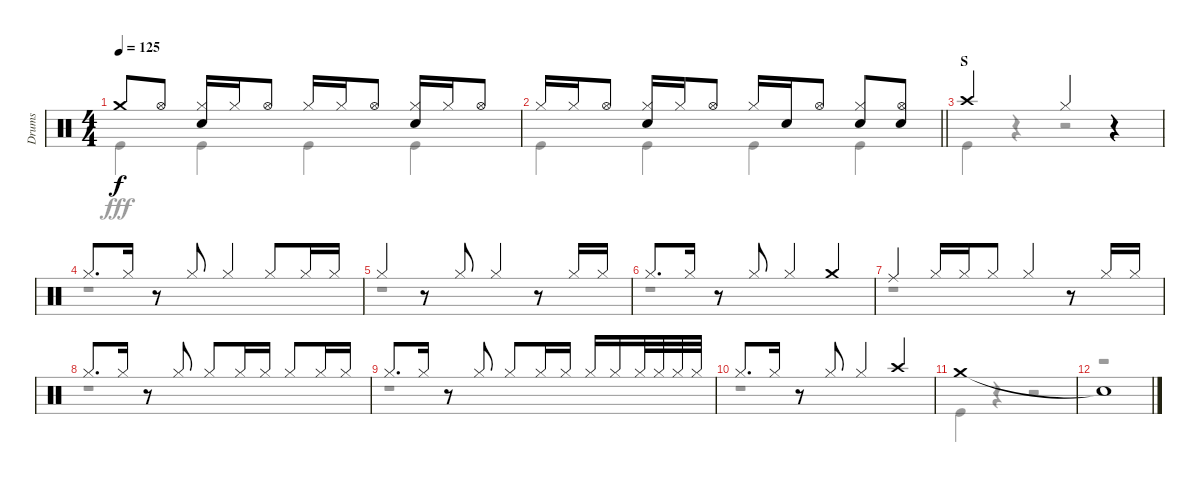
\track ("Drums" "Drums") {instrument percussion}
\staff {score}
\articulation defaults
\voice
\ts (4 4)
\tempo 125
\clef neutral
\ks c "Crash medium (hit)".8{dy f} "Hi-Hat (open)".8
("Hi-Hat (closed)" "Snare (hit) 2").16 "Hi-Hat (closed)".16 "Hi-Hat (open)".8 "Hi-Hat (closed)".16 "Hi-Hat (closed)".16 "Hi-Hat (open)".8 ("Hi-Hat (closed)" "Snare (hit) 2").16 "Hi-Hat (closed)".16 "Hi-Hat (open)".8 |
\barLineRight lightlight "Hi-Hat (closed)".16 "Hi-Hat (closed)".16 "Hi-Hat (open)".8
("Hi-Hat (closed)" "Snare (hit) 2").16 "Hi-Hat (closed)".16 "Hi-Hat (open)".8 "Hi-Hat (closed)".16 "Snare (hit) 2".16 "Hi-Hat (open)".8 ("Hi-Hat (closed)" "Snare (hit) 2").8 ("Hi-Hat (open)" "Snare (hit) 2").8 |
\section ("" "S")
"Crash high (hit)".2 "Hi-Hat (closed)".4 r.4 |
"Hi-Hat (closed)".8{d} "Hi-Hat (closed)".16 r.8 "Hi-Hat (closed)".8 "Hi-Hat (closed)".4 "Hi-Hat (closed)".8 "Hi-Hat (closed)".16 "Hi-Hat (closed)".16 |
"Hi-Hat (closed)".4 r.8 "Hi-Hat (closed)".8 "Hi-Hat (closed)".4 r.8 "Hi-Hat (closed)".16 "Hi-Hat (closed)".16 |
"Hi-Hat (closed)".8{d} "Hi-Hat (closed)".16 r.8 "Hi-Hat (closed)".8 "Hi-Hat (closed)".4 "Crash medium (hit)".4 |
"Ride (middle)".4 "Hi-Hat (closed)".16 "Hi-Hat (closed)".16 "Hi-Hat (closed)".8 "Hi-Hat (closed)".4 r.8 "Hi-Hat (closed)".16 "Hi-Hat (closed)".16 |
"Hi-Hat (closed)".8{d} "Hi-Hat (closed)".16 r.8 "Hi-Hat (closed)".8 "Hi-Hat (closed)".8 "Hi-Hat (closed)".16 "Hi-Hat (closed)".16 "Hi-Hat (closed)".8 "Hi-Hat (closed)".16 "Hi-Hat (closed)".16 |
"Hi-Hat (closed)".8{d} "Hi-Hat (closed)".16 r.8 "Hi-Hat (closed)".8 "Hi-Hat (closed)".8 "Hi-Hat (closed)".16 "Hi-Hat (closed)".16 "Hi-Hat (closed)".16 "Hi-Hat (closed)".16 "Hi-Hat (closed)".32 "Hi-Hat (closed)".32 "Hi-Hat (closed)".32 "Hi-Hat (closed)".32 |
"Hi-Hat (closed)".8{d} "Hi-Hat (closed)".16 r.8 "Hi-Hat (closed)".8 "Hi-Hat (closed)".4 "Crash high (hit)".4 |
"Crash medium (hit)".1 |
"Snare (hit)"{t}.1
\voice
\clef neutral
\ottava regular
\simile none
\ks c "Kick (hit)".4{dy fff} "Kick (hit)".4 "Kick (hit)".4 "Kick (hit)".4
|
\barLineRight lightlight "Kick (hit)".4 "Kick (hit)".4 "Kick (hit)".4 "Kick (hit)".4
|
"Kick (hit)".4 r.4 r.2 |
r.1 |
r.1 |
r.1 |
r.1 |
r.1 |
r.1 |
r.1 |
"Kick (hit)".4 r.4 r.2 |
r.1
